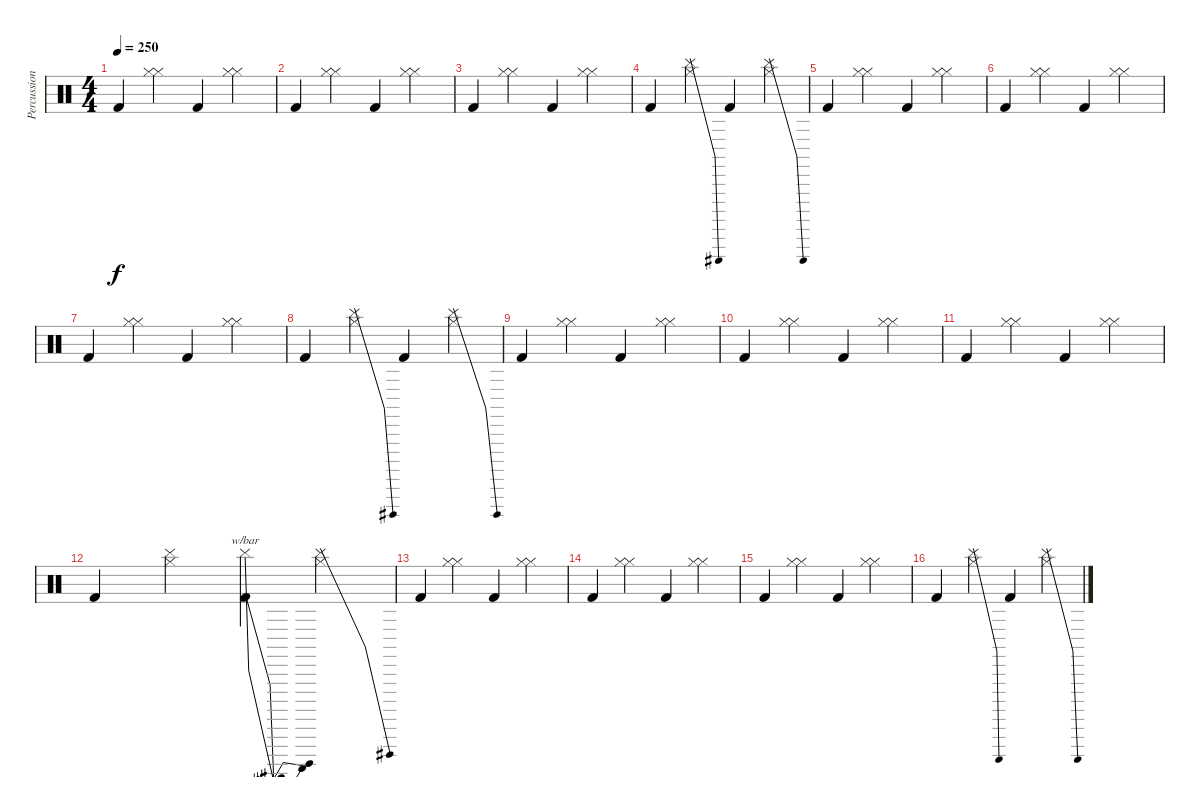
\track ("Percussion" "Percussion") {instrument percussion}
\staff {score}
\articulation defaults
\ts (4 4)
\tempo 250
\clef neutral
\ks c "Kick (hit) 2".4{dy f}
("Hi-Hat (closed)" "Hi-Hat (closed)").4 "Kick (hit) 2".4 ("Hi-Hat (closed)" "Hi-Hat (closed)").4 |
"Kick (hit) 2".4 ("Hi-Hat (closed)" "Hi-Hat (closed)").4 "Kick (hit) 2".4 ("Hi-Hat (closed)" "Hi-Hat (closed)").4 |
"Kick (hit) 2".4 ("Hi-Hat (closed)" "Hi-Hat (closed)").4 "Kick (hit) 2".4 ("Hi-Hat (closed)" "Hi-Hat (closed)").4 |
"Kick (hit) 2".4 ("Hi-Hat (closed)" "Cymbal (hit)"{be (bend 0 0 60 12)}).4 "Kick (hit) 2".4 ("Hi-Hat (closed)" "Cymbal (hit)"{be (bend 0 0 60 12)}).4 |
"Kick (hit) 2".4 ("Hi-Hat (closed)" "Hi-Hat (closed)").4 "Kick (hit) 2".4 ("Hi-Hat (closed)" "Hi-Hat (closed)").4 |
"Kick (hit) 2".4 ("Hi-Hat (closed)" "Hi-Hat (closed)").4 "Kick (hit) 2".4 ("Hi-Hat (closed)" "Hi-Hat (closed)").4 |
"Kick (hit) 2".4 ("Hi-Hat (closed)" "Hi-Hat (closed)").4 "Kick (hit) 2".4 ("Hi-Hat (closed)" "Hi-Hat (closed)").4 |
"Kick (hit) 2".4 ("Hi-Hat (closed)" "Cymbal (hit)"{be (bend 0 0 60 8)}).4 "Kick (hit) 2".4 ("Hi-Hat (closed)" "Cymbal (hit)"{be (bend 0 0 60 8)}).4 |
"Kick (hit) 2".4 ("Hi-Hat (closed)" "Hi-Hat (closed)").4 "Kick (hit) 2".4 ("Hi-Hat (closed)" "Hi-Hat (closed)").4 |
"Kick (hit) 2".4 ("Hi-Hat (closed)" "Hi-Hat (closed)").4 "Kick (hit) 2".4 ("Hi-Hat (closed)" "Hi-Hat (closed)").4 |
"Kick (hit) 2".4 ("Hi-Hat (closed)" "Hi-Hat (closed)").4 "Kick (hit) 2".4 ("Hi-Hat (closed)" "Hi-Hat (closed)").4 |
"Kick (hit) 2".4 ("Hi-Hat (closed)" "Cymbal (hit)"{be (custom 0 0 15 4 30 4 45 0 60 0)}).4 ("Kick (hit) 2" "Cymbal (hit)").4{tbe (dip default 0 0 30 -8 60 0)} ("Hi-Hat (closed)" "Cymbal (hit)"{be (bend 0 0 60 8)}).4 |
"Kick (hit) 2".4 ("Hi-Hat (closed)" "Hi-Hat (closed)").4 "Kick (hit) 2".4 ("Hi-Hat (closed)" "Hi-Hat (closed)").4 |
"Kick (hit) 2".4 ("Hi-Hat (closed)" "Hi-Hat (closed)").4 "Kick (hit) 2".4 ("Hi-Hat (closed)" "Hi-Hat (closed)").4 |
"Kick (hit) 2".4 ("Hi-Hat (closed)" "Hi-Hat (closed)").4 "Kick (hit) 2".4 ("Hi-Hat (closed)" "Hi-Hat (closed)").4 |
"Kick (hit) 2".4 ("Hi-Hat (closed)" "Cymbal (hit)"{be (bend 0 0 60 4)}).4 "Kick (hit) 2".4 ("Hi-Hat (closed)" "Cymbal (hit)"{be (bend 0 0 60 4)}).4
